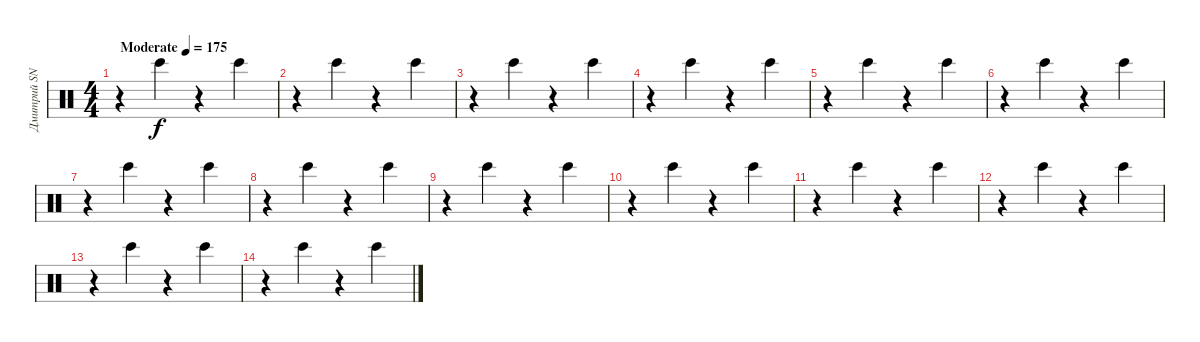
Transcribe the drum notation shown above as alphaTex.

\track ("Дмитрий SNAKE Хакимов" "Дмитрий SN") {instrument percussion}
\staff {score}
\articulation defaults
\ts (4 4)
\tempo (175 "Moderate")
\clef neutral
\ks c
r.4{dy f} "Bongo High (hit)".4 r.4 "Bongo High (hit)".4 |
r.4 "Bongo High (hit)".4 r.4 "Bongo High (hit)".4 |
r.4 "Bongo High (hit)".4 r.4 "Bongo High (hit)".4 |
r.4 "Bongo High (hit)".4 r.4 "Bongo High (hit)".4 |
r.4 "Bongo High (hit)".4 r.4 "Bongo High (hit)".4 |
r.4 "Bongo High (hit)".4 r.4 "Bongo High (hit)".4 |
r.4 "Bongo High (hit)".4 r.4 "Bongo High (hit)".4 |
r.4 "Bongo High (hit)".4 r.4 "Bongo High (hit)".4 |
r.4 "Bongo High (hit)".4 r.4 "Bongo High (hit)".4 |
r.4 "Bongo High (hit)".4 r.4 "Bongo High (hit)".4 |
r.4 "Bongo High (hit)".4 r.4 "Bongo High (hit)".4 |
r.4 "Bongo High (hit)".4 r.4 "Bongo High (hit)".4 |
r.4 "Bongo High (hit)".4 r.4 "Bongo High (hit)".4 |
r.4 "Bongo High (hit)".4 r.4 "Bongo High (hit)".4
